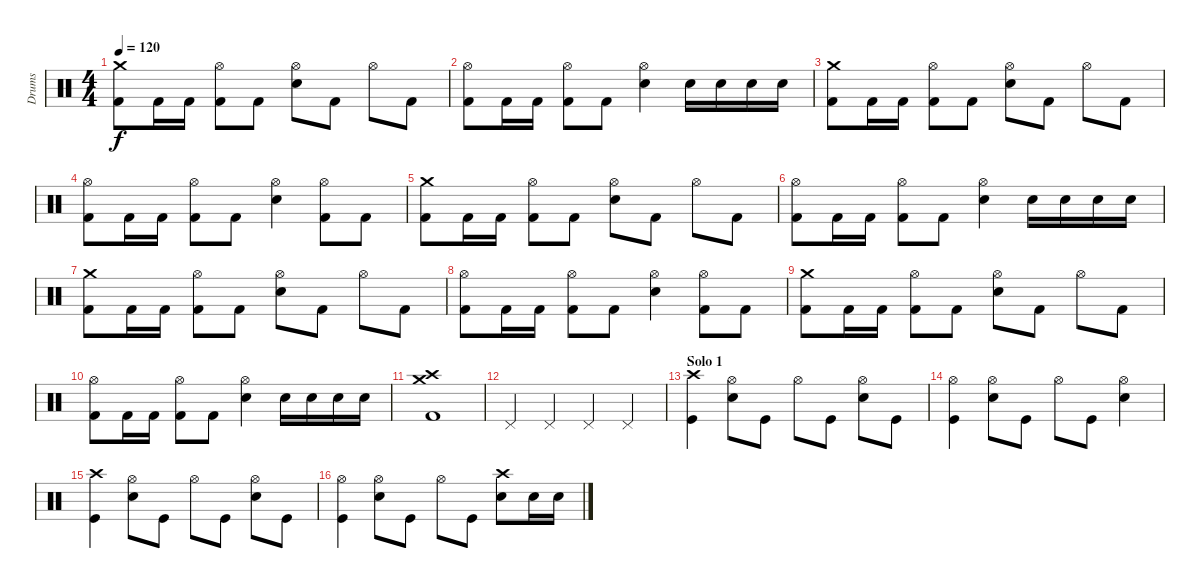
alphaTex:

\track ("Drums" "Drums") {instrument percussion}
\staff {score}
\articulation defaults
\ts (4 4)
\tempo 120
\clef neutral
\ks c
("Crash medium (hit)" "Kick (hit) 2").8{dy f} "Kick (hit) 2".16 "Kick (hit) 2".16 ("Hi-Hat (open)" "Kick (hit) 2").8 "Kick (hit) 2".8 ("Hi-Hat (open)" "Snare (hit) 2").8 "Kick (hit) 2".8 "Hi-Hat (open)".8 "Kick (hit) 2".8 |
("Hi-Hat (open)" "Kick (hit) 2").8 "Kick (hit) 2".16 "Kick (hit) 2".16 ("Hi-Hat (open)" "Kick (hit) 2").8 "Kick (hit) 2".8 ("Hi-Hat (open)" "Snare (hit) 2").4 "Snare (hit) 2".16 "Snare (hit) 2".16 "Snare (hit) 2".16 "Snare (hit) 2".16 |
("Crash medium (hit)" "Kick (hit) 2").8 "Kick (hit) 2".16 "Kick (hit) 2".16 ("Hi-Hat (open)" "Kick (hit) 2").8 "Kick (hit) 2".8 ("Hi-Hat (open)" "Snare (hit) 2").8 "Kick (hit) 2".8 "Hi-Hat (open)".8 "Kick (hit) 2".8 |
("Hi-Hat (open)" "Kick (hit) 2").8 "Kick (hit) 2".16 "Kick (hit) 2".16 ("Hi-Hat (open)" "Kick (hit) 2").8 "Kick (hit) 2".8 ("Hi-Hat (open)" "Snare (hit) 2").4 ("Hi-Hat (open)" "Kick (hit) 2").8 "Kick (hit) 2".8 |
("Crash medium (hit)" "Kick (hit) 2").8 "Kick (hit) 2".16 "Kick (hit) 2".16 ("Hi-Hat (open)" "Kick (hit) 2").8 "Kick (hit) 2".8 ("Hi-Hat (open)" "Snare (hit) 2").8 "Kick (hit) 2".8 "Hi-Hat (open)".8 "Kick (hit) 2".8 |
("Hi-Hat (open)" "Kick (hit) 2").8 "Kick (hit) 2".16 "Kick (hit) 2".16 ("Hi-Hat (open)" "Kick (hit) 2").8 "Kick (hit) 2".8 ("Hi-Hat (open)" "Snare (hit) 2").4 "Snare (hit) 2".16 "Snare (hit) 2".16 "Snare (hit) 2".16 "Snare (hit) 2".16 |
("Crash medium (hit)" "Kick (hit) 2").8 "Kick (hit) 2".16 "Kick (hit) 2".16 ("Hi-Hat (open)" "Kick (hit) 2").8 "Kick (hit) 2".8 ("Hi-Hat (open)" "Snare (hit) 2").8 "Kick (hit) 2".8 "Hi-Hat (open)".8 "Kick (hit) 2".8 |
("Hi-Hat (open)" "Kick (hit) 2").8 "Kick (hit) 2".16 "Kick (hit) 2".16 ("Hi-Hat (open)" "Kick (hit) 2").8 "Kick (hit) 2".8 ("Hi-Hat (open)" "Snare (hit) 2").4 ("Hi-Hat (open)" "Kick (hit) 2").8 "Kick (hit) 2".8 |
("Crash medium (hit)" "Kick (hit) 2").8 "Kick (hit) 2".16 "Kick (hit) 2".16 ("Hi-Hat (open)" "Kick (hit) 2").8 "Kick (hit) 2".8 ("Hi-Hat (open)" "Snare (hit) 2").8 "Kick (hit) 2".8 "Hi-Hat (open)".8 "Kick (hit) 2".8 |
("Hi-Hat (open)" "Kick (hit) 2").8 "Kick (hit) 2".16 "Kick (hit) 2".16 ("Hi-Hat (open)" "Kick (hit) 2").8 "Kick (hit) 2".8 ("Hi-Hat (open)" "Snare (hit) 2").4 "Snare (hit) 2".16 "Snare (hit) 2".16 "Snare (hit) 2".16 "Snare (hit) 2".16 |
("Crash medium (hit)" "Crash high (hit)" "Kick (hit) 2").1 |
"Pedal Hi-Hat (hit)".4 "Pedal Hi-Hat (hit)".4 "Pedal Hi-Hat (hit)".4 "Pedal Hi-Hat (hit)".4 |
\section ("" "Solo 1")
("Crash high (hit)" "Kick (hit)").4 ("Hi-Hat (open)" "Snare (hit) 2").8 "Kick (hit)".8 "Hi-Hat (open)".8 "Kick (hit)".8 ("Hi-Hat (open)" "Snare (hit) 2").8 "Kick (hit)".8 |
("Hi-Hat (open)" "Kick (hit)").4 ("Hi-Hat (open)" "Snare (hit) 2").8 "Kick (hit)".8 "Hi-Hat (open)".8 "Kick (hit)".8 ("Hi-Hat (open)" "Snare (hit) 2").4 |
("Crash high (hit)" "Kick (hit)").4 ("Hi-Hat (open)" "Snare (hit) 2").8 "Kick (hit)".8 "Hi-Hat (open)".8 "Kick (hit)".8 ("Hi-Hat (open)" "Snare (hit) 2").8 "Kick (hit)".8 |
("Hi-Hat (open)" "Kick (hit)").4 ("Hi-Hat (open)" "Snare (hit) 2").8 "Kick (hit)".8 "Hi-Hat (open)".8 "Kick (hit)".8 ("Crash high (hit)" "Snare (hit) 2").8 "Snare (hit) 2".16 "Snare (hit) 2".16
